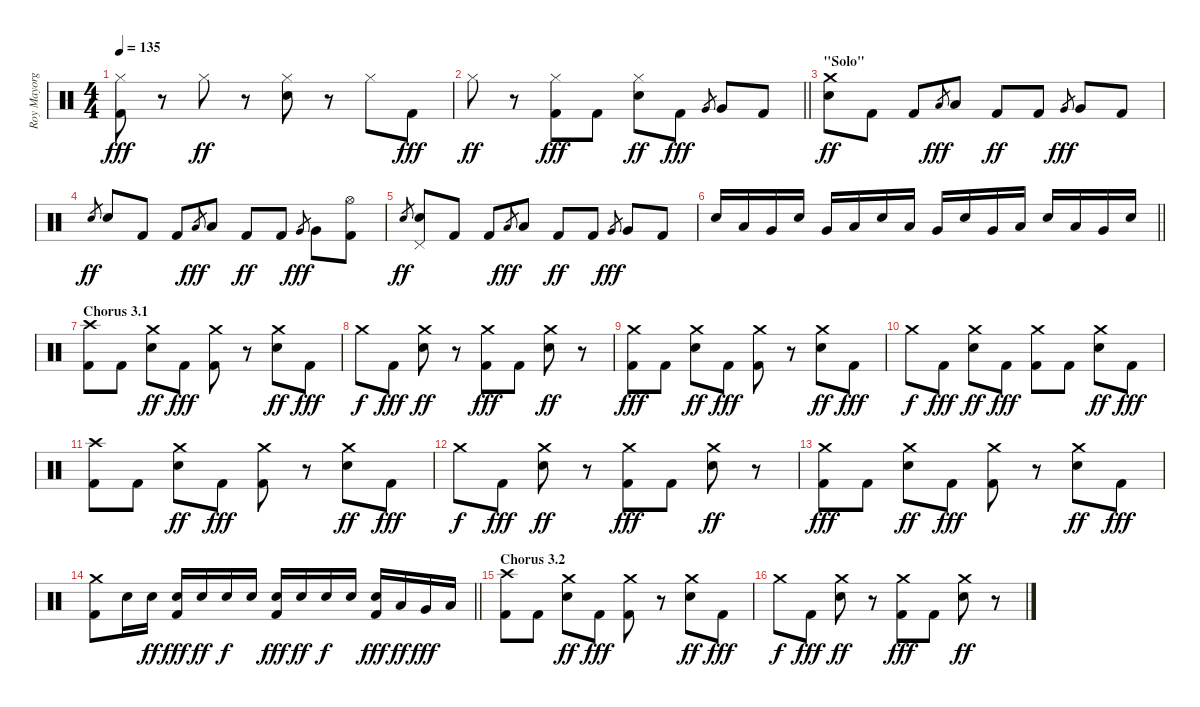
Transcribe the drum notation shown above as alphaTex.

\track ("Roy Mayorga" "Roy Mayorg") {instrument percussion}
\staff {score}
\articulation defaults
\ts (4 4)
\tempo 135
\clef neutral
\ks c
("Hi-Hat (closed)" "Kick (hit) 2").8{dy fff} r.8 "Hi-Hat (closed)".8{dy ff} r.8 ("Hi-Hat (closed)" "Electric Snare (hit)").8 r.8 "Hi-Hat (closed)".8 "Kick (hit) 2".8{dy fff} |
\barLineRight lightlight "Hi-Hat (closed)".8{dy ff}
r.8 ("Hi-Hat (closed)" "Kick (hit) 2").8{dy fff} "Kick (hit) 2".8 ("Hi-Hat (closed)" "Electric Snare (hit)").8{dy ff} "Kick (hit) 2".8{dy fff} "Very Low Tom (hit)".8{gr} "Very Low Tom (hit)".8 "Kick (hit) 2".8 |
\section ("" "\"Solo\"")
("Crash medium (hit)" "Electric Snare (hit)").8{dy ff} "Kick (hit) 2".8 "Kick (hit) 2".8 "Low Tom (hit)".8{gr dy fff} "Low Tom (hit)".8 "Kick (hit) 2".8{dy ff} "Kick (hit) 2".8 "Very Low Tom (hit)".8{gr dy fff} "Very Low Tom (hit)".8 "Kick (hit) 2".8 |
"Electric Snare (hit)".8{gr dy ff} "Electric Snare (hit)".8 "Kick (hit) 2".8 "Kick (hit) 2".8 "Low Tom (hit)".8{gr dy fff} "Low Tom (hit)".8 "Kick (hit) 2".8{dy ff} "Kick (hit) 2".8 "Very Low Tom (hit)".8{gr dy fff} "Very Low Tom (hit)".8 ("Hi-Hat (open)" "Kick (hit) 2").8 |
"Electric Snare (hit)".8{gr dy ff} ("Electric Snare (hit)" "Pedal Hi-Hat (hit)").8 "Kick (hit) 2".8 "Kick (hit) 2".8 "Low Tom (hit)".8{gr dy fff} "Low Tom (hit)".8 "Kick (hit) 2".8{dy ff} "Kick (hit) 2".8 "Very Low Tom (hit)".8{gr dy fff} "Very Low Tom (hit)".8 "Kick (hit) 2".8 |
\barLineRight lightlight "Electric Snare (hit)".16 "Low Tom (hit)".16 "Very Low Tom (hit)".16 "Electric Snare (hit)".16 "Very Low Tom (hit)".16 "Low Floor Tom (hit)".16 "Electric Snare (hit)".16 "Low Tom (hit)".16 "Very Low Tom (hit)".16 "Electric Snare (hit)".16 "Very Low Tom (hit)".16 "Low Floor Tom (hit)".16 "Electric Snare (hit)".16 "Low Tom (hit)".16 "Very Low Tom (hit)".16 "Electric Snare (hit)".16
|
\section ("" "Chorus 3.1")
("Crash high (hit)" "Kick (hit) 2").8 "Kick (hit) 2".8 ("Crash medium (hit)" "Electric Snare (hit)").8{dy ff} "Kick (hit) 2".8{dy fff} ("Crash medium (hit)" "Kick (hit) 2").8 r.8 ("Crash medium (hit)" "Electric Snare (hit)").8{dy ff} "Kick (hit) 2".8{dy fff} |
"Crash medium (hit)".8{dy f} "Kick (hit) 2".8{dy fff} ("Crash medium (hit)" "Electric Snare (hit)").8{dy ff} r.8 ("Crash medium (hit)" "Kick (hit) 2").8{dy fff} "Kick (hit) 2".8 ("Crash medium (hit)" "Electric Snare (hit)").8{dy ff} r.8 |
("Crash medium (hit)" "Kick (hit) 2").8{dy fff} "Kick (hit) 2".8 ("Crash medium (hit)" "Electric Snare (hit)").8{dy ff} "Kick (hit) 2".8{dy fff} ("Crash medium (hit)" "Kick (hit) 2").8 r.8 ("Crash medium (hit)" "Electric Snare (hit)").8{dy ff} "Kick (hit) 2".8{dy fff} |
"Crash medium (hit)".8{dy f} "Kick (hit) 2".8{dy fff} ("Crash medium (hit)" "Electric Snare (hit)").8{dy ff} "Kick (hit) 2".8{dy fff} ("Crash medium (hit)" "Kick (hit) 2").8 "Kick (hit) 2".8 ("Crash medium (hit)" "Electric Snare (hit)").8{dy ff} "Kick (hit) 2".8{dy fff} |
("Crash high (hit)" "Kick (hit) 2").8 "Kick (hit) 2".8 ("Crash medium (hit)" "Electric Snare (hit)").8{dy ff} "Kick (hit) 2".8{dy fff} ("Crash medium (hit)" "Kick (hit) 2").8 r.8 ("Crash medium (hit)" "Electric Snare (hit)").8{dy ff} "Kick (hit) 2".8{dy fff} |
"Crash medium (hit)".8{dy f} "Kick (hit) 2".8{dy fff} ("Crash medium (hit)" "Electric Snare (hit)").8{dy ff} r.8 ("Crash medium (hit)" "Kick (hit) 2").8{dy fff} "Kick (hit) 2".8 ("Crash medium (hit)" "Electric Snare (hit)").8{dy ff} r.8 |
("Crash medium (hit)" "Kick (hit) 2").8{dy fff} "Kick (hit) 2".8 ("Crash medium (hit)" "Electric Snare (hit)").8{dy ff} "Kick (hit) 2".8{dy fff} ("Crash medium (hit)" "Kick (hit) 2").8 r.8 ("Crash medium (hit)" "Electric Snare (hit)").8{dy ff} "Kick (hit) 2".8{dy fff} |
\barLineRight lightlight
("Crash medium (hit)" "Kick (hit) 2").8 "Electric Snare (hit)".16 "Electric Snare (hit)".16{dy ff} ("Electric Snare (hit)" "Kick (hit) 2").16{dy fff} "Electric Snare (hit)".16{dy ff} "Electric Snare (hit)".16{dy f} "Electric Snare (hit)".16 ("Electric Snare (hit)" "Kick (hit) 2").16{dy fff} "Electric Snare (hit)".16{dy ff} "Electric Snare (hit)".16{dy f} "Electric Snare (hit)".16 ("Electric Snare (hit)" "Kick (hit) 2").16{dy fff} "Low Tom (hit)".16{dy ff} "Very Low Tom (hit)".16{dy fff} "Low Floor Tom (hit)".16 |
\section ("" "Chorus 3.2")
("Crash high (hit)" "Kick (hit) 2").8 "Kick (hit) 2".8 ("Crash medium (hit)" "Electric Snare (hit)").8{dy ff} "Kick (hit) 2".8{dy fff} ("Crash medium (hit)" "Kick (hit) 2").8 r.8 ("Crash medium (hit)" "Electric Snare (hit)").8{dy ff} "Kick (hit) 2".8{dy fff} |
"Crash medium (hit)".8{dy f} "Kick (hit) 2".8{dy fff} ("Crash medium (hit)" "Electric Snare (hit)").8{dy ff} r.8 ("Crash medium (hit)" "Kick (hit) 2").8{dy fff} "Kick (hit) 2".8 ("Crash medium (hit)" "Electric Snare (hit)").8{dy ff} r.8
